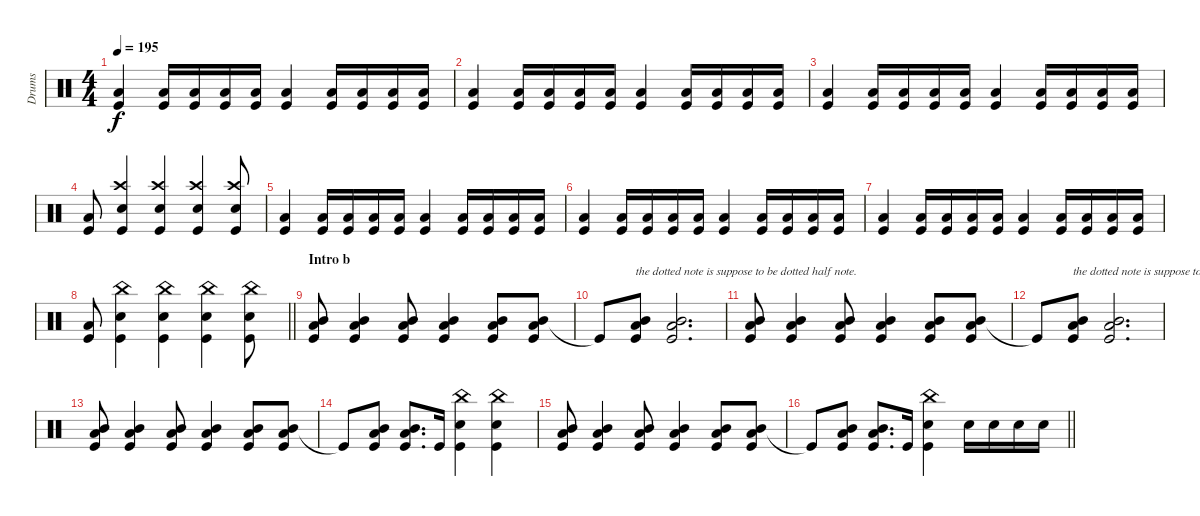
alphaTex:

\track ("Drums" "Drums") {instrument percussion}
\staff {score}
\articulation defaults
\ts (4 4)
\tempo 195
\clef neutral
\ks c
("Low Floor Tom (hit)" "Kick (hit)").4{dy f} ("Low Floor Tom (hit)" "Kick (hit)").16 ("Low Floor Tom (hit)" "Kick (hit)").16 ("Low Floor Tom (hit)" "Kick (hit)").16 ("Low Floor Tom (hit)" "Kick (hit)").16 ("Low Floor Tom (hit)" "Kick (hit)").4 ("Low Floor Tom (hit)" "Kick (hit)").16 ("Low Floor Tom (hit)" "Kick (hit)").16 ("Low Floor Tom (hit)" "Kick (hit)").16 ("Low Floor Tom (hit)" "Kick (hit)").16 |
("Low Floor Tom (hit)" "Kick (hit)").4 ("Low Floor Tom (hit)" "Kick (hit)").16 ("Low Floor Tom (hit)" "Kick (hit)").16 ("Low Floor Tom (hit)" "Kick (hit)").16 ("Low Floor Tom (hit)" "Kick (hit)").16 ("Low Floor Tom (hit)" "Kick (hit)").4 ("Low Floor Tom (hit)" "Kick (hit)").16 ("Low Floor Tom (hit)" "Kick (hit)").16 ("Low Floor Tom (hit)" "Kick (hit)").16 ("Low Floor Tom (hit)" "Kick (hit)").16 |
("Low Floor Tom (hit)" "Kick (hit)").4 ("Low Floor Tom (hit)" "Kick (hit)").16 ("Low Floor Tom (hit)" "Kick (hit)").16 ("Low Floor Tom (hit)" "Kick (hit)").16 ("Low Floor Tom (hit)" "Kick (hit)").16 ("Low Floor Tom (hit)" "Kick (hit)").4 ("Low Floor Tom (hit)" "Kick (hit)").16 ("Low Floor Tom (hit)" "Kick (hit)").16 ("Low Floor Tom (hit)" "Kick (hit)").16 ("Low Floor Tom (hit)" "Kick (hit)").16 |
("Low Floor Tom (hit)" "Kick (hit)").8 ("Crash high (hit)" "Snare (hit) 2" "Kick (hit)").4 ("Crash high (hit)" "Snare (hit) 2" "Kick (hit)").4 ("Crash high (hit)" "Snare (hit) 2" "Kick (hit)").4 ("Crash high (hit)" "Snare (hit) 2" "Kick (hit)").8 |
("Low Floor Tom (hit)" "Kick (hit)").4 ("Low Floor Tom (hit)" "Kick (hit)").16 ("Low Floor Tom (hit)" "Kick (hit)").16 ("Low Floor Tom (hit)" "Kick (hit)").16 ("Low Floor Tom (hit)" "Kick (hit)").16 ("Low Floor Tom (hit)" "Kick (hit)").4 ("Low Floor Tom (hit)" "Kick (hit)").16 ("Low Floor Tom (hit)" "Kick (hit)").16 ("Low Floor Tom (hit)" "Kick (hit)").16 ("Low Floor Tom (hit)" "Kick (hit)").16 |
("Low Floor Tom (hit)" "Kick (hit)").4 ("Low Floor Tom (hit)" "Kick (hit)").16 ("Low Floor Tom (hit)" "Kick (hit)").16 ("Low Floor Tom (hit)" "Kick (hit)").16 ("Low Floor Tom (hit)" "Kick (hit)").16 ("Low Floor Tom (hit)" "Kick (hit)").4 ("Low Floor Tom (hit)" "Kick (hit)").16 ("Low Floor Tom (hit)" "Kick (hit)").16 ("Low Floor Tom (hit)" "Kick (hit)").16 ("Low Floor Tom (hit)" "Kick (hit)").16 |
("Low Floor Tom (hit)" "Kick (hit)").4 ("Low Floor Tom (hit)" "Kick (hit)").16 ("Low Floor Tom (hit)" "Kick (hit)").16 ("Low Floor Tom (hit)" "Kick (hit)").16 ("Low Floor Tom (hit)" "Kick (hit)").16 ("Low Floor Tom (hit)" "Kick (hit)").4 ("Low Floor Tom (hit)" "Kick (hit)").16 ("Low Floor Tom (hit)" "Kick (hit)").16 ("Low Floor Tom (hit)" "Kick (hit)").16 ("Low Floor Tom (hit)" "Kick (hit)").16 |
\barLineRight lightlight
("Low Floor Tom (hit)" "Kick (hit)").8 ("China (hit)" "Snare (hit) 2" "Kick (hit)").4 ("China (hit)" "Snare (hit) 2" "Kick (hit)").4 ("China (hit)" "Snare (hit) 2" "Kick (hit)").4 ("China (hit)" "Snare (hit) 2" "Kick (hit)").8 |
\section ("" "Intro b")
("Mid Tom (hit)" "Low Floor Tom (hit)" "Kick (hit)").8 ("Mid Tom (hit)" "Low Floor Tom (hit)" "Kick (hit)").4 ("Mid Tom (hit)" "Low Floor Tom (hit)" "Kick (hit)").8 ("Mid Tom (hit)" "Low Floor Tom (hit)" "Kick (hit)").4 ("Mid Tom (hit)" "Low Floor Tom (hit)" "Kick (hit)").8 ("Mid Tom (hit)" "Low Floor Tom (hit)" "Kick (hit)").8 |
"Kick (hit)"{t}.8 ("Mid Tom (hit)" "Low Floor Tom (hit)" "Kick (hit)").8{txt "the dotted note is suppose to be dotted half note."} ("Mid Tom (hit)" "Low Floor Tom (hit)" "Kick (hit)").2{d} |
("Mid Tom (hit)" "Low Floor Tom (hit)" "Kick (hit)").8 ("Mid Tom (hit)" "Low Floor Tom (hit)" "Kick (hit)").4 ("Mid Tom (hit)" "Low Floor Tom (hit)" "Kick (hit)").8 ("Mid Tom (hit)" "Low Floor Tom (hit)" "Kick (hit)").4 ("Mid Tom (hit)" "Low Floor Tom (hit)" "Kick (hit)").8 ("Mid Tom (hit)" "Low Floor Tom (hit)" "Kick (hit)").8 |
"Kick (hit)"{t}.8 ("Mid Tom (hit)" "Low Floor Tom (hit)" "Kick (hit)").8{txt "the dotted note is suppose to be dotted half note."} ("Mid Tom (hit)" "Low Floor Tom (hit)" "Kick (hit)").2{d} |
("Mid Tom (hit)" "Low Floor Tom (hit)" "Kick (hit)").8 ("Mid Tom (hit)" "Low Floor Tom (hit)" "Kick (hit)").4 ("Mid Tom (hit)" "Low Floor Tom (hit)" "Kick (hit)").8 ("Mid Tom (hit)" "Low Floor Tom (hit)" "Kick (hit)").4 ("Mid Tom (hit)" "Low Floor Tom (hit)" "Kick (hit)").8 ("Mid Tom (hit)" "Low Floor Tom (hit)" "Kick (hit)").8 |
"Kick (hit)"{t}.8 ("Mid Tom (hit)" "Low Floor Tom (hit)" "Kick (hit)").8 ("Mid Tom (hit)" "Low Floor Tom (hit)" "Kick (hit)").8{d} "Kick (hit)".16 ("China (hit)" "Snare (hit) 2" "Kick (hit)").4 ("China (hit)" "Snare (hit) 2" "Kick (hit)").4 |
("Mid Tom (hit)" "Low Floor Tom (hit)" "Kick (hit)").8 ("Mid Tom (hit)" "Low Floor Tom (hit)" "Kick (hit)").4 ("Mid Tom (hit)" "Low Floor Tom (hit)" "Kick (hit)").8 ("Mid Tom (hit)" "Low Floor Tom (hit)" "Kick (hit)").4 ("Mid Tom (hit)" "Low Floor Tom (hit)" "Kick (hit)").8 ("Mid Tom (hit)" "Low Floor Tom (hit)" "Kick (hit)").8 |
\barLineRight lightlight "Kick (hit)"{t}.8
("Mid Tom (hit)" "Low Floor Tom (hit)" "Kick (hit)").8 ("Mid Tom (hit)" "Low Floor Tom (hit)" "Kick (hit)").8{d} "Kick (hit)".16 ("China (hit)" "Snare (hit) 2" "Kick (hit)").4 "Snare (hit) 2".16 "Snare (hit) 2".16 "Snare (hit) 2".16 "Snare (hit) 2".16
